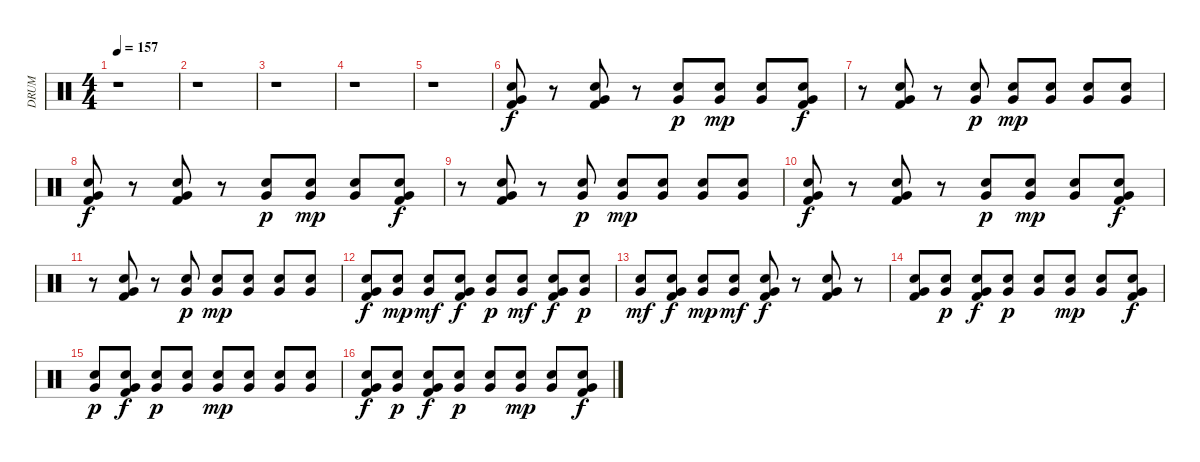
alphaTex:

\track ("DRUM" "DRUM") {instrument percussion}
\staff {score}
\articulation defaults
\ts (4 4)
\tempo 157
\clef neutral
\ks c
r.1{dy f} |
r.1 |
r.1 |
r.1 |
r.1 |
("Snare (hit) 2" "Kick (hit) 2" "Very Low Tom (hit)").8 r.8 ("Kick (hit) 2" "Snare (hit) 2" "Very Low Tom (hit)").8 r.8 ("Very Low Tom (hit)" "Snare (hit) 2").8{dy p} ("Very Low Tom (hit)" "Snare (hit) 2").8{dy mp} ("Snare (hit) 2" "Very Low Tom (hit)").8 ("Very Low Tom (hit)" "Kick (hit) 2" "Snare (hit) 2").8{dy f} |
r.8 ("Very Low Tom (hit)" "Kick (hit) 2" "Snare (hit) 2").8 r.8 ("Very Low Tom (hit)" "Snare (hit) 2").8{dy p} ("Snare (hit) 2" "Very Low Tom (hit)").8{dy mp} ("Very Low Tom (hit)" "Snare (hit) 2").8 ("Snare (hit) 2" "Very Low Tom (hit)").8 ("Snare (hit) 2" "Very Low Tom (hit)").8 |
("Snare (hit) 2" "Kick (hit) 2" "Very Low Tom (hit)").8{dy f} r.8 ("Kick (hit) 2" "Snare (hit) 2" "Very Low Tom (hit)").8 r.8 ("Very Low Tom (hit)" "Snare (hit) 2").8{dy p} ("Very Low Tom (hit)" "Snare (hit) 2").8{dy mp} ("Snare (hit) 2" "Very Low Tom (hit)").8 ("Very Low Tom (hit)" "Kick (hit) 2" "Snare (hit) 2").8{dy f} |
r.8 ("Very Low Tom (hit)" "Kick (hit) 2" "Snare (hit) 2").8 r.8 ("Very Low Tom (hit)" "Snare (hit) 2").8{dy p} ("Snare (hit) 2" "Very Low Tom (hit)").8{dy mp} ("Very Low Tom (hit)" "Snare (hit) 2").8 ("Snare (hit) 2" "Very Low Tom (hit)").8 ("Snare (hit) 2" "Very Low Tom (hit)").8 |
("Snare (hit) 2" "Kick (hit) 2" "Very Low Tom (hit)").8{dy f} r.8 ("Kick (hit) 2" "Snare (hit) 2" "Very Low Tom (hit)").8 r.8 ("Very Low Tom (hit)" "Snare (hit) 2").8{dy p} ("Very Low Tom (hit)" "Snare (hit) 2").8{dy mp} ("Snare (hit) 2" "Very Low Tom (hit)").8 ("Very Low Tom (hit)" "Kick (hit) 2" "Snare (hit) 2").8{dy f} |
r.8 ("Very Low Tom (hit)" "Kick (hit) 2" "Snare (hit) 2").8 r.8 ("Very Low Tom (hit)" "Snare (hit) 2").8{dy p} ("Snare (hit) 2" "Very Low Tom (hit)").8{dy mp} ("Very Low Tom (hit)" "Snare (hit) 2").8 ("Snare (hit) 2" "Very Low Tom (hit)").8 ("Snare (hit) 2" "Very Low Tom (hit)").8 |
("Snare (hit) 2" "Kick (hit) 2" "Very Low Tom (hit)").8{dy f} ("Snare (hit) 2" "Very Low Tom (hit)").8{dy mp} ("Snare (hit) 2" "Very Low Tom (hit)").8{dy mf} ("Kick (hit) 2" "Snare (hit) 2" "Very Low Tom (hit)").8{dy f} ("Very Low Tom (hit)" "Snare (hit) 2").8{dy p} ("Snare (hit) 2" "Very Low Tom (hit)").8{dy mf} ("Kick (hit) 2" "Snare (hit) 2" "Very Low Tom (hit)").8{dy f} ("Very Low Tom (hit)" "Snare (hit) 2").8{dy p} |
("Snare (hit) 2" "Very Low Tom (hit)").8{dy mf} ("Kick (hit) 2" "Snare (hit) 2" "Very Low Tom (hit)").8{dy f} ("Snare (hit) 2" "Very Low Tom (hit)").8{dy mp} ("Snare (hit) 2" "Very Low Tom (hit)").8{dy mf} ("Kick (hit) 2" "Snare (hit) 2" "Very Low Tom (hit)").8{dy f} r.8 ("Kick (hit) 2" "Snare (hit) 2" "Very Low Tom (hit)").8 r.8 |
("Snare (hit) 2" "Kick (hit) 2" "Very Low Tom (hit)").8 ("Snare (hit) 2" "Very Low Tom (hit)").8{dy p} ("Kick (hit) 2" "Snare (hit) 2" "Very Low Tom (hit)").8{dy f} ("Snare (hit) 2" "Very Low Tom (hit)").8{dy p} ("Very Low Tom (hit)" "Snare (hit) 2").8 ("Very Low Tom (hit)" "Snare (hit) 2").8{dy mp} ("Snare (hit) 2" "Very Low Tom (hit)").8 ("Very Low Tom (hit)" "Kick (hit) 2" "Snare (hit) 2").8{dy f} |
("Snare (hit) 2" "Very Low Tom (hit)").8{dy p} ("Very Low Tom (hit)" "Kick (hit) 2" "Snare (hit) 2").8{dy f} ("Snare (hit) 2" "Very Low Tom (hit)").8{dy p} ("Very Low Tom (hit)" "Snare (hit) 2").8 ("Snare (hit) 2" "Very Low Tom (hit)").8{dy mp} ("Very Low Tom (hit)" "Snare (hit) 2").8 ("Snare (hit) 2" "Very Low Tom (hit)").8 ("Snare (hit) 2" "Very Low Tom (hit)").8 |
("Snare (hit) 2" "Kick (hit) 2" "Very Low Tom (hit)").8{dy f} ("Snare (hit) 2" "Very Low Tom (hit)").8{dy p} ("Kick (hit) 2" "Snare (hit) 2" "Very Low Tom (hit)").8{dy f} ("Snare (hit) 2" "Very Low Tom (hit)").8{dy p} ("Very Low Tom (hit)" "Snare (hit) 2").8 ("Very Low Tom (hit)" "Snare (hit) 2").8{dy mp} ("Snare (hit) 2" "Very Low Tom (hit)").8 ("Very Low Tom (hit)" "Kick (hit) 2" "Snare (hit) 2").8{dy f}
